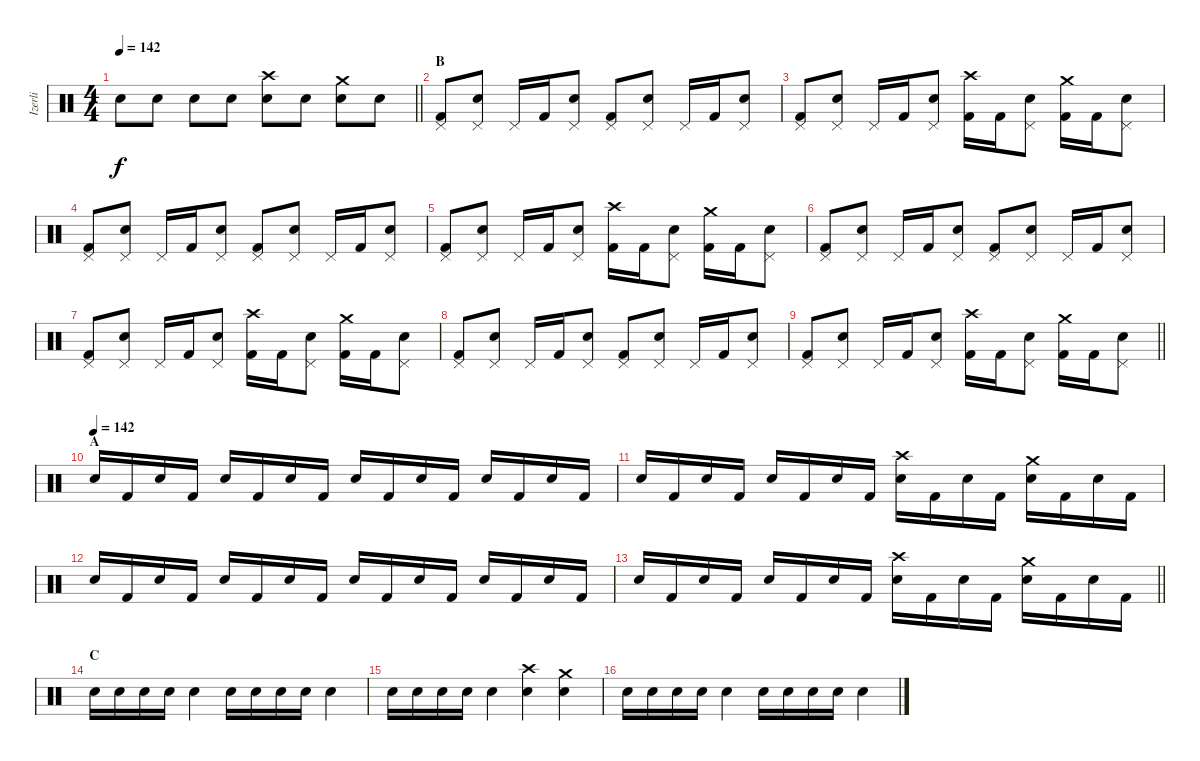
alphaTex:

\track ("Izerli" "Izerli") {instrument percussion}
\staff {score}
\articulation defaults
\ts (4 4)
\tempo 142
\clef neutral
\barLineRight lightlight
\ks c "Electric Snare (hit)".8{dy f} "Electric Snare (hit)".8 "Electric Snare (hit)".8 "Electric Snare (hit)".8
("Crash high (hit)" "Electric Snare (hit)").8 "Electric Snare (hit)".8 ("Crash medium (hit)" "Electric Snare (hit)").8 "Electric Snare (hit)".8 |
\section ("" "B")
("Pedal Hi-Hat (hit)" "Kick (hit) 2").8 ("Pedal Hi-Hat (hit)" "Electric Snare (hit)").8 "Pedal Hi-Hat (hit)".16 "Kick (hit) 2".16 ("Pedal Hi-Hat (hit)" "Electric Snare (hit)").8 ("Pedal Hi-Hat (hit)" "Kick (hit) 2").8 ("Pedal Hi-Hat (hit)" "Electric Snare (hit)").8 "Pedal Hi-Hat (hit)".16 "Kick (hit) 2".16 ("Pedal Hi-Hat (hit)" "Electric Snare (hit)").8 |
("Pedal Hi-Hat (hit)" "Kick (hit) 2").8 ("Pedal Hi-Hat (hit)" "Electric Snare (hit)").8 "Pedal Hi-Hat (hit)".16 "Kick (hit) 2".16 ("Pedal Hi-Hat (hit)" "Electric Snare (hit)").8 ("Crash high (hit)" "Kick (hit) 2").16 "Kick (hit) 2".16 ("Pedal Hi-Hat (hit)" "Electric Snare (hit)").8 ("Crash medium (hit)" "Kick (hit) 2").16 "Kick (hit) 2".16 ("Pedal Hi-Hat (hit)" "Electric Snare (hit)").8 |
("Pedal Hi-Hat (hit)" "Kick (hit) 2").8 ("Pedal Hi-Hat (hit)" "Electric Snare (hit)").8 "Pedal Hi-Hat (hit)".16 "Kick (hit) 2".16 ("Pedal Hi-Hat (hit)" "Electric Snare (hit)").8 ("Pedal Hi-Hat (hit)" "Kick (hit) 2").8 ("Pedal Hi-Hat (hit)" "Electric Snare (hit)").8 "Pedal Hi-Hat (hit)".16 "Kick (hit) 2".16 ("Pedal Hi-Hat (hit)" "Electric Snare (hit)").8 |
("Pedal Hi-Hat (hit)" "Kick (hit) 2").8 ("Pedal Hi-Hat (hit)" "Electric Snare (hit)").8 "Pedal Hi-Hat (hit)".16 "Kick (hit) 2".16 ("Pedal Hi-Hat (hit)" "Electric Snare (hit)").8 ("Crash high (hit)" "Kick (hit) 2").16 "Kick (hit) 2".16 ("Pedal Hi-Hat (hit)" "Electric Snare (hit)").8 ("Crash medium (hit)" "Kick (hit) 2").16 "Kick (hit) 2".16 ("Pedal Hi-Hat (hit)" "Electric Snare (hit)").8 |
("Pedal Hi-Hat (hit)" "Kick (hit) 2").8 ("Pedal Hi-Hat (hit)" "Electric Snare (hit)").8 "Pedal Hi-Hat (hit)".16 "Kick (hit) 2".16 ("Pedal Hi-Hat (hit)" "Electric Snare (hit)").8 ("Pedal Hi-Hat (hit)" "Kick (hit) 2").8 ("Pedal Hi-Hat (hit)" "Electric Snare (hit)").8 "Pedal Hi-Hat (hit)".16 "Kick (hit) 2".16 ("Pedal Hi-Hat (hit)" "Electric Snare (hit)").8 |
("Pedal Hi-Hat (hit)" "Kick (hit) 2").8 ("Pedal Hi-Hat (hit)" "Electric Snare (hit)").8 "Pedal Hi-Hat (hit)".16 "Kick (hit) 2".16 ("Pedal Hi-Hat (hit)" "Electric Snare (hit)").8 ("Crash high (hit)" "Kick (hit) 2").16 "Kick (hit) 2".16 ("Pedal Hi-Hat (hit)" "Electric Snare (hit)").8 ("Crash medium (hit)" "Kick (hit) 2").16 "Kick (hit) 2".16 ("Pedal Hi-Hat (hit)" "Electric Snare (hit)").8 |
("Pedal Hi-Hat (hit)" "Kick (hit) 2").8 ("Pedal Hi-Hat (hit)" "Electric Snare (hit)").8 "Pedal Hi-Hat (hit)".16 "Kick (hit) 2".16 ("Pedal Hi-Hat (hit)" "Electric Snare (hit)").8 ("Pedal Hi-Hat (hit)" "Kick (hit) 2").8 ("Pedal Hi-Hat (hit)" "Electric Snare (hit)").8 "Pedal Hi-Hat (hit)".16 "Kick (hit) 2".16 ("Pedal Hi-Hat (hit)" "Electric Snare (hit)").8 |
\barLineRight lightlight
("Pedal Hi-Hat (hit)" "Kick (hit) 2").8 ("Pedal Hi-Hat (hit)" "Electric Snare (hit)").8 "Pedal Hi-Hat (hit)".16 "Kick (hit) 2".16 ("Pedal Hi-Hat (hit)" "Electric Snare (hit)").8 ("Crash high (hit)" "Kick (hit) 2").16 "Kick (hit) 2".16 ("Pedal Hi-Hat (hit)" "Electric Snare (hit)").8 ("Crash medium (hit)" "Kick (hit) 2").16 "Kick (hit) 2".16 ("Pedal Hi-Hat (hit)" "Electric Snare (hit)").8 |
\section ("" "A")
\tempo (142)
"Electric Snare (hit)".16 "Kick (hit) 2".16 "Electric Snare (hit)".16 "Kick (hit) 2".16 "Electric Snare (hit)".16 "Kick (hit) 2".16 "Electric Snare (hit)".16 "Kick (hit) 2".16 "Electric Snare (hit)".16 "Kick (hit) 2".16 "Electric Snare (hit)".16 "Kick (hit) 2".16 "Electric Snare (hit)".16 "Kick (hit) 2".16 "Electric Snare (hit)".16 "Kick (hit) 2".16 |
"Electric Snare (hit)".16 "Kick (hit) 2".16 "Electric Snare (hit)".16 "Kick (hit) 2".16 "Electric Snare (hit)".16 "Kick (hit) 2".16 "Electric Snare (hit)".16 "Kick (hit) 2".16 ("Crash high (hit)" "Electric Snare (hit)").16 "Kick (hit) 2".16 "Electric Snare (hit)".16 "Kick (hit) 2".16 ("Crash medium (hit)" "Electric Snare (hit)").16 "Kick (hit) 2".16 "Electric Snare (hit)".16 "Kick (hit) 2".16 |
"Electric Snare (hit)".16 "Kick (hit) 2".16 "Electric Snare (hit)".16 "Kick (hit) 2".16 "Electric Snare (hit)".16 "Kick (hit) 2".16 "Electric Snare (hit)".16 "Kick (hit) 2".16 "Electric Snare (hit)".16 "Kick (hit) 2".16 "Electric Snare (hit)".16 "Kick (hit) 2".16 "Electric Snare (hit)".16 "Kick (hit) 2".16 "Electric Snare (hit)".16 "Kick (hit) 2".16 |
\barLineRight lightlight "Electric Snare (hit)".16 "Kick (hit) 2".16 "Electric Snare (hit)".16 "Kick (hit) 2".16 "Electric Snare (hit)".16 "Kick (hit) 2".16 "Electric Snare (hit)".16 "Kick (hit) 2".16
("Crash high (hit)" "Electric Snare (hit)").16 "Kick (hit) 2".16 "Electric Snare (hit)".16 "Kick (hit) 2".16 ("Crash medium (hit)" "Electric Snare (hit)").16 "Kick (hit) 2".16 "Electric Snare (hit)".16 "Kick (hit) 2".16 |
\section ("" "C")
"Electric Snare (hit)".16 "Electric Snare (hit)".16 "Electric Snare (hit)".16 "Electric Snare (hit)".16 "Electric Snare (hit)".4 "Electric Snare (hit)".16 "Electric Snare (hit)".16 "Electric Snare (hit)".16 "Electric Snare (hit)".16 "Electric Snare (hit)".4 |
"Electric Snare (hit)".16 "Electric Snare (hit)".16 "Electric Snare (hit)".16 "Electric Snare (hit)".16 "Electric Snare (hit)".4 ("Crash high (hit)" "Electric Snare (hit)").4 ("Crash medium (hit)" "Electric Snare (hit)").4 |
"Electric Snare (hit)".16 "Electric Snare (hit)".16 "Electric Snare (hit)".16 "Electric Snare (hit)".16 "Electric Snare (hit)".4 "Electric Snare (hit)".16 "Electric Snare (hit)".16 "Electric Snare (hit)".16 "Electric Snare (hit)".16 "Electric Snare (hit)".4
